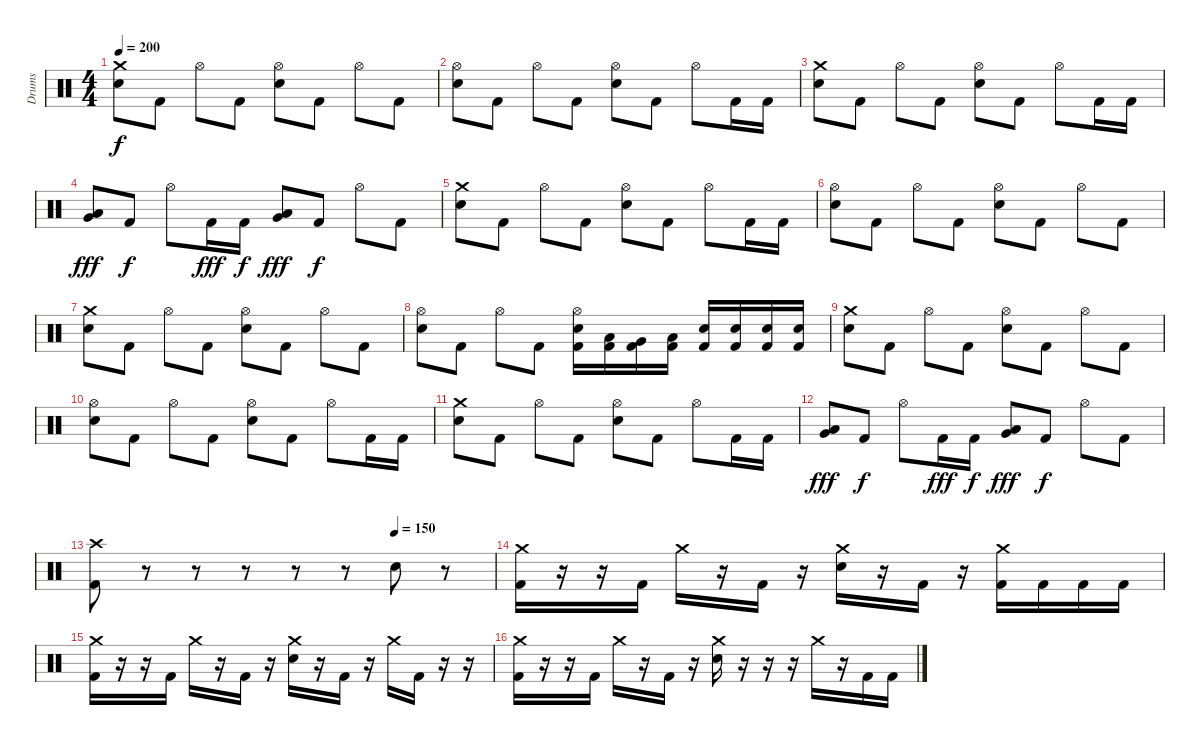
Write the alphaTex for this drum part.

\track ("Drums" "Drums") {instrument percussion}
\staff {score}
\articulation defaults
\ts (4 4)
\tempo 200
\clef neutral
\ks c
("Crash medium (hit)" "Electric Snare (hit)").8{dy f} "Kick (hit) 2".8 "Hi-Hat (open)".8 "Kick (hit) 2".8 ("Hi-Hat (open)" "Electric Snare (hit)").8 "Kick (hit) 2".8 "Hi-Hat (open)".8 "Kick (hit) 2".8 |
("Hi-Hat (open)" "Electric Snare (hit)").8 "Kick (hit) 2".8 "Hi-Hat (open)".8 "Kick (hit) 2".8 ("Hi-Hat (open)" "Electric Snare (hit)").8 "Kick (hit) 2".8 "Hi-Hat (open)".8 "Kick (hit) 2".16 "Kick (hit) 2".16 |
("Crash medium (hit)" "Electric Snare (hit)").8 "Kick (hit) 2".8 "Hi-Hat (open)".8 "Kick (hit) 2".8 ("Hi-Hat (open)" "Electric Snare (hit)").8 "Kick (hit) 2".8 "Hi-Hat (open)".8 "Kick (hit) 2".16 "Kick (hit) 2".16 |
("Very Low Tom (hit)" "Low Floor Tom (hit)").8{dy fff} "Kick (hit) 2".8{dy f} "Hi-Hat (open)".8 "Kick (hit) 2".16{dy fff} "Kick (hit) 2".16{dy f} ("Very Low Tom (hit)" "Low Floor Tom (hit)").8{dy fff} "Kick (hit) 2".8{dy f} "Hi-Hat (open)".8 "Kick (hit) 2".8 |
("Crash medium (hit)" "Electric Snare (hit)").8 "Kick (hit) 2".8 "Hi-Hat (open)".8 "Kick (hit) 2".8 ("Hi-Hat (open)" "Electric Snare (hit)").8 "Kick (hit) 2".8 "Hi-Hat (open)".8 "Kick (hit) 2".16 "Kick (hit) 2".16 |
("Hi-Hat (open)" "Electric Snare (hit)").8 "Kick (hit) 2".8 "Hi-Hat (open)".8 "Kick (hit) 2".8 ("Hi-Hat (open)" "Electric Snare (hit)").8 "Kick (hit) 2".8 "Hi-Hat (open)".8 "Kick (hit) 2".8 |
("Crash medium (hit)" "Electric Snare (hit)").8 "Kick (hit) 2".8 "Hi-Hat (open)".8 "Kick (hit) 2".8 ("Hi-Hat (open)" "Electric Snare (hit)").8 "Kick (hit) 2".8 "Hi-Hat (open)".8 "Kick (hit) 2".8 |
("Hi-Hat (open)" "Electric Snare (hit)").8 "Kick (hit) 2".8 "Hi-Hat (open)".8 "Kick (hit) 2".8 ("Hi-Hat (open)" "Electric Snare (hit)" "Kick (hit) 2").16 ("Low Tom (hit)" "Kick (hit) 2").16 ("Very Low Tom (hit)" "Kick (hit) 2").16 ("Low Floor Tom (hit)" "Kick (hit) 2").16 ("Electric Snare (hit)" "Kick (hit) 2").16 ("Electric Snare (hit)" "Kick (hit) 2").16 ("Electric Snare (hit)" "Kick (hit) 2").16 ("Electric Snare (hit)" "Kick (hit) 2").16 |
("Crash medium (hit)" "Electric Snare (hit)").8 "Kick (hit) 2".8 "Hi-Hat (open)".8 "Kick (hit) 2".8 ("Hi-Hat (open)" "Electric Snare (hit)").8 "Kick (hit) 2".8 "Hi-Hat (open)".8 "Kick (hit) 2".8 |
("Hi-Hat (open)" "Electric Snare (hit)").8 "Kick (hit) 2".8 "Hi-Hat (open)".8 "Kick (hit) 2".8 ("Hi-Hat (open)" "Electric Snare (hit)").8 "Kick (hit) 2".8 "Hi-Hat (open)".8 "Kick (hit) 2".16 "Kick (hit) 2".16 |
("Crash medium (hit)" "Electric Snare (hit)").8 "Kick (hit) 2".8 "Hi-Hat (open)".8 "Kick (hit) 2".8 ("Hi-Hat (open)" "Electric Snare (hit)").8 "Kick (hit) 2".8 "Hi-Hat (open)".8 "Kick (hit) 2".16 "Kick (hit) 2".16 |
("Very Low Tom (hit)" "Low Floor Tom (hit)").8{dy fff} "Kick (hit) 2".8{dy f} "Hi-Hat (open)".8 "Kick (hit) 2".16{dy fff} "Kick (hit) 2".16{dy f} ("Very Low Tom (hit)" "Low Floor Tom (hit)").8{dy fff} "Kick (hit) 2".8{dy f} "Hi-Hat (open)".8 "Kick (hit) 2".8 |
\tempo (150 0.75)
("Crash high (hit)" "Kick (hit) 2").8 r.8 r.8 r.8 r.8 r.8 "Electric Snare (hit)".8 r.8 |
("Crash medium (hit)" "Kick (hit) 2").16 r.16 r.16 "Kick (hit) 2".16 "Crash medium (hit)".16 r.16 "Kick (hit) 2".16 r.16 ("Crash medium (hit)" "Electric Snare (hit)").16 r.16 "Kick (hit) 2".16 r.16 ("Crash medium (hit)" "Kick (hit) 2").16 "Kick (hit) 2".16 "Kick (hit) 2".16 "Kick (hit) 2".16 |
("Crash medium (hit)" "Kick (hit) 2").16 r.16 r.16 "Kick (hit) 2".16 "Crash medium (hit)".16 r.16 "Kick (hit) 2".16 r.16 ("Crash medium (hit)" "Electric Snare (hit)").16 r.16 "Kick (hit) 2".16 r.16 "Crash medium (hit)".16 "Kick (hit) 2".16 r.16 r.16 |
("Crash medium (hit)" "Kick (hit) 2").16 r.16 r.16 "Kick (hit) 2".16 "Crash medium (hit)".16 r.16 "Kick (hit) 2".16 r.16 ("Crash medium (hit)" "Electric Snare (hit)").16 r.16 r.16 r.16 "Crash medium (hit)".16 r.16 "Kick (hit) 2".16 "Kick (hit) 2".16
